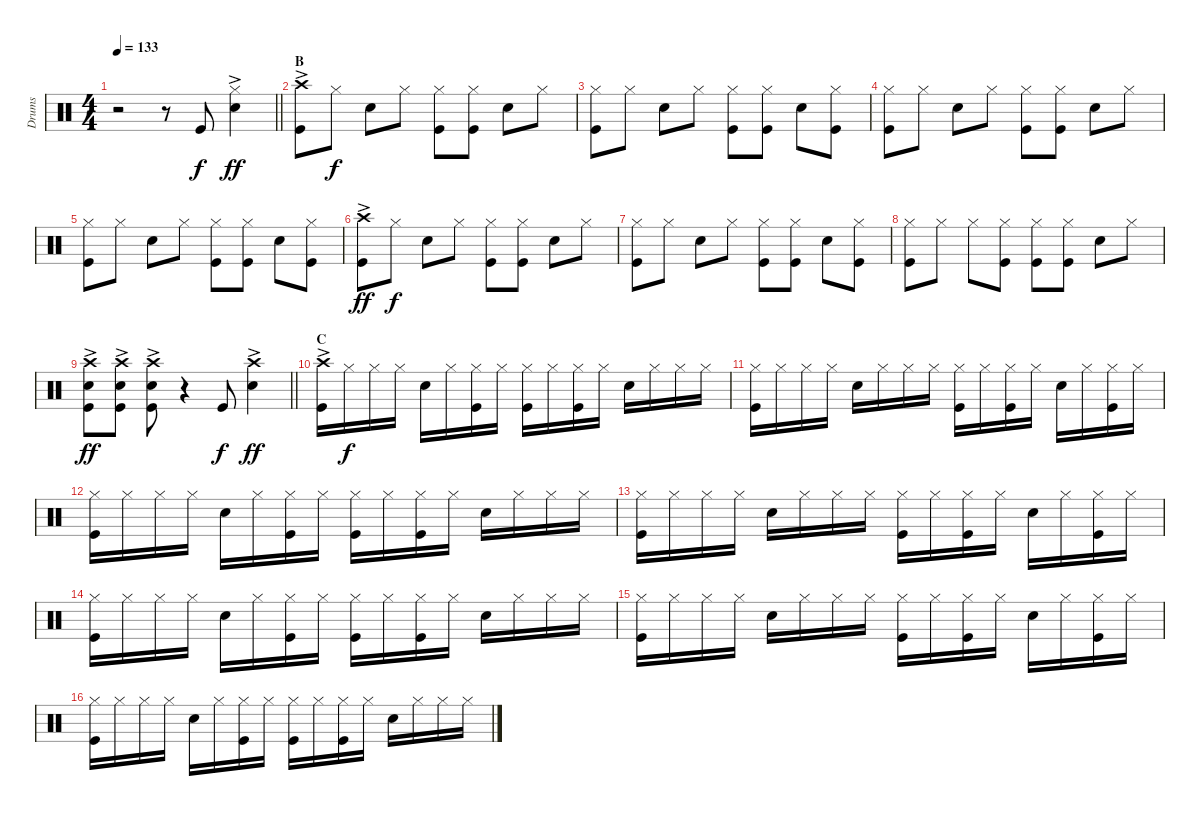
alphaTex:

\track ("Drums" "Drums") {instrument percussion}
\staff {score}
\articulation defaults
\ts (4 4)
\tempo 133
\clef neutral
\barLineRight lightlight
\ks c
r.2{dy f} r.8 "Kick (hit)".8 ("Hi-Hat (closed)"{ac} "Snare (hit) 2"{ac}).4{dy ff} |
\section ("" "B")
("Crash high (hit)"{ac} "Kick (hit)").8 "Hi-Hat (closed)".8{dy f} "Snare (hit) 2".8 "Hi-Hat (closed)".8 ("Hi-Hat (closed)" "Kick (hit)").8 ("Kick (hit)" "Hi-Hat (closed)").8 "Snare (hit) 2".8 "Hi-Hat (closed)".8 |
("Hi-Hat (closed)" "Kick (hit)").8 "Hi-Hat (closed)".8 "Snare (hit) 2".8 "Hi-Hat (closed)".8 ("Hi-Hat (closed)" "Kick (hit)").8 ("Hi-Hat (closed)" "Kick (hit)").8 "Snare (hit) 2".8 ("Kick (hit)" "Hi-Hat (closed)").8 |
("Kick (hit)" "Hi-Hat (closed)").8 "Hi-Hat (closed)".8 "Snare (hit) 2".8 "Hi-Hat (closed)".8 ("Hi-Hat (closed)" "Kick (hit)").8 ("Hi-Hat (closed)" "Kick (hit)").8 "Snare (hit) 2".8 "Hi-Hat (closed)".8 |
("Hi-Hat (closed)" "Kick (hit)").8 "Hi-Hat (closed)".8 "Snare (hit) 2".8 "Hi-Hat (closed)".8 ("Hi-Hat (closed)" "Kick (hit)").8 ("Kick (hit)" "Hi-Hat (closed)").8 "Snare (hit) 2".8 ("Hi-Hat (closed)" "Kick (hit)").8 |
("Crash high (hit)"{ac} "Kick (hit)").8{dy ff} "Hi-Hat (closed)".8{dy f} "Snare (hit) 2".8 "Hi-Hat (closed)".8 ("Hi-Hat (closed)" "Kick (hit)").8 ("Hi-Hat (closed)" "Kick (hit)").8 "Snare (hit) 2".8 "Hi-Hat (closed)".8 |
("Hi-Hat (closed)" "Kick (hit)").8 "Hi-Hat (closed)".8 "Snare (hit) 2".8 "Hi-Hat (closed)".8 ("Hi-Hat (closed)" "Kick (hit)").8 ("Hi-Hat (closed)" "Kick (hit)").8 "Snare (hit) 2".8 ("Hi-Hat (closed)" "Kick (hit)").8 |
("Hi-Hat (closed)" "Kick (hit)").8 "Hi-Hat (closed)".8 "Hi-Hat (closed)".8 ("Hi-Hat (closed)" "Kick (hit)").8 ("Kick (hit)" "Hi-Hat (closed)").8 ("Hi-Hat (closed)" "Kick (hit)").8 "Snare (hit) 2".8 "Hi-Hat (closed)".8 |
\barLineRight lightlight
("Crash high (hit)"{ac} "Snare (hit) 2"{ac} "Kick (hit)"{ac}).8{dy ff} ("Crash high (hit)"{ac} "Snare (hit) 2"{ac} "Kick (hit)"{ac}).8 ("Crash high (hit)"{ac} "Snare (hit) 2"{ac} "Kick (hit)"{ac}).8 r.4 "Kick (hit)".8{dy f} ("Crash high (hit)"{ac} "Snare (hit) 2"{ac}).4{dy ff} |
\section ("" "C")
("Crash high (hit)"{ac} "Kick (hit)").16 "Hi-Hat (closed)".16{dy f} "Hi-Hat (closed)".16 "Hi-Hat (closed)".16 "Snare (hit) 2".16 "Hi-Hat (closed)".16 ("Hi-Hat (closed)" "Kick (hit)").16 "Hi-Hat (closed)".16 ("Hi-Hat (closed)" "Kick (hit)").16 "Hi-Hat (closed)".16 ("Hi-Hat (closed)" "Kick (hit)").16 "Hi-Hat (closed)".16 "Snare (hit) 2".16 "Hi-Hat (closed)".16 "Hi-Hat (closed)".16 "Hi-Hat (closed)".16 |
("Hi-Hat (closed)" "Kick (hit)").16 "Hi-Hat (closed)".16 "Hi-Hat (closed)".16 "Hi-Hat (closed)".16 "Snare (hit) 2".16 "Hi-Hat (closed)".16 "Hi-Hat (closed)".16 "Hi-Hat (closed)".16 ("Hi-Hat (closed)" "Kick (hit)").16 "Hi-Hat (closed)".16 ("Hi-Hat (closed)" "Kick (hit)").16 "Hi-Hat (closed)".16 "Snare (hit) 2".16 "Hi-Hat (closed)".16 ("Hi-Hat (closed)" "Kick (hit)").16 "Hi-Hat (closed)".16 |
("Hi-Hat (closed)" "Kick (hit)").16 "Hi-Hat (closed)".16 "Hi-Hat (closed)".16 "Hi-Hat (closed)".16 "Snare (hit) 2".16 "Hi-Hat (closed)".16 ("Hi-Hat (closed)" "Kick (hit)").16 "Hi-Hat (closed)".16 ("Kick (hit)" "Hi-Hat (closed)").16 "Hi-Hat (closed)".16 ("Hi-Hat (closed)" "Kick (hit)").16 "Hi-Hat (closed)".16 "Snare (hit) 2".16 "Hi-Hat (closed)".16 "Hi-Hat (closed)".16 "Hi-Hat (closed)".16 |
("Kick (hit)" "Hi-Hat (closed)").16 "Hi-Hat (closed)".16 "Hi-Hat (closed)".16 "Hi-Hat (closed)".16 "Snare (hit) 2".16 "Hi-Hat (closed)".16 "Hi-Hat (closed)".16 "Hi-Hat (closed)".16 ("Hi-Hat (closed)" "Kick (hit)").16 "Hi-Hat (closed)".16 ("Hi-Hat (closed)" "Kick (hit)").16 "Hi-Hat (closed)".16 "Snare (hit) 2".16 "Hi-Hat (closed)".16 ("Hi-Hat (closed)" "Kick (hit)").16 "Hi-Hat (closed)".16 |
("Hi-Hat (closed)" "Kick (hit)").16 "Hi-Hat (closed)".16 "Hi-Hat (closed)".16 "Hi-Hat (closed)".16 "Snare (hit) 2".16 "Hi-Hat (closed)".16 ("Hi-Hat (closed)" "Kick (hit)").16 "Hi-Hat (closed)".16 ("Hi-Hat (closed)" "Kick (hit)").16 "Hi-Hat (closed)".16 ("Hi-Hat (closed)" "Kick (hit)").16 "Hi-Hat (closed)".16 "Snare (hit) 2".16 "Hi-Hat (closed)".16 "Hi-Hat (closed)".16 "Hi-Hat (closed)".16 |
("Kick (hit)" "Hi-Hat (closed)").16 "Hi-Hat (closed)".16 "Hi-Hat (closed)".16 "Hi-Hat (closed)".16 "Snare (hit) 2".16 "Hi-Hat (closed)".16 "Hi-Hat (closed)".16 "Hi-Hat (closed)".16 ("Hi-Hat (closed)" "Kick (hit)").16 "Hi-Hat (closed)".16 ("Hi-Hat (closed)" "Kick (hit)").16 "Hi-Hat (closed)".16 "Snare (hit) 2".16 "Hi-Hat (closed)".16 ("Kick (hit)" "Hi-Hat (closed)").16 "Hi-Hat (closed)".16 |
("Hi-Hat (closed)" "Kick (hit)").16 "Hi-Hat (closed)".16 "Hi-Hat (closed)".16 "Hi-Hat (closed)".16 "Snare (hit) 2".16 "Hi-Hat (closed)".16 ("Hi-Hat (closed)" "Kick (hit)").16 "Hi-Hat (closed)".16 ("Hi-Hat (closed)" "Kick (hit)").16 "Hi-Hat (closed)".16 ("Hi-Hat (closed)" "Kick (hit)").16 "Hi-Hat (closed)".16 "Snare (hit) 2".16 "Hi-Hat (closed)".16 "Hi-Hat (closed)".16 "Hi-Hat (closed)".16
